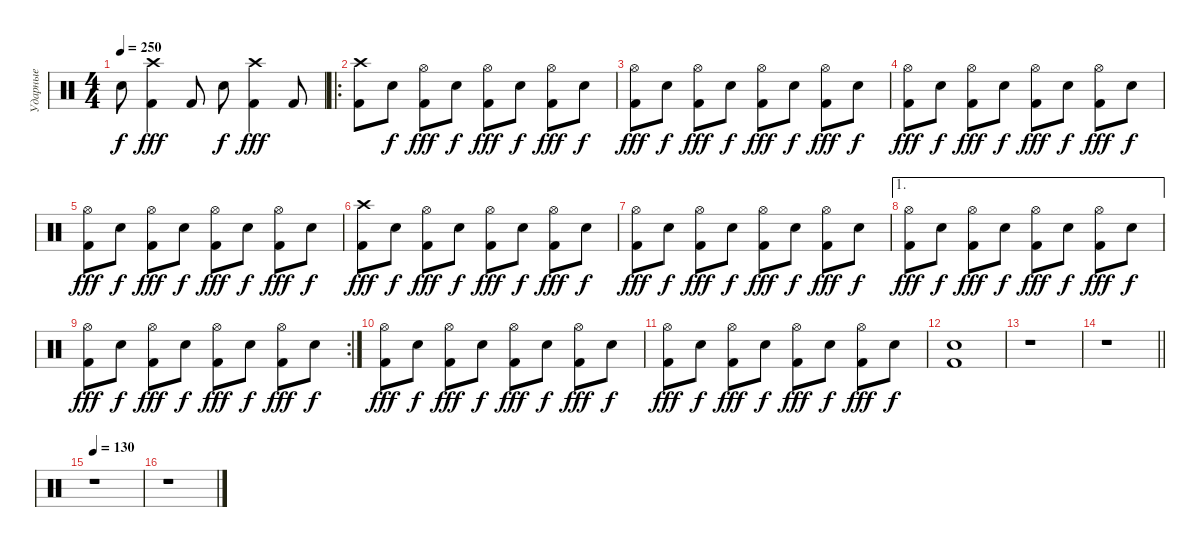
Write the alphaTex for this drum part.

\track ("Ударные" "Ударные") {instrument percussion}
\staff {score}
\articulation defaults
\ts (4 4)
\tempo 250
\clef neutral
\ks c "Snare (hit) 2".8{dy f}
("Kick (hit) 2" "Crash high (hit)").4{dy fff} "Kick (hit) 2".8 "Snare (hit) 2".8{dy f} ("Kick (hit) 2" "Crash high (hit)").4{dy fff} "Kick (hit) 2".8 |
\ro
("Kick (hit) 2" "Crash high (hit)").8 "Snare (hit) 2".8{dy f} ("Kick (hit) 2" "Hi-Hat (open)").8{dy fff} "Snare (hit) 2".8{dy f} ("Kick (hit) 2" "Hi-Hat (open)").8{dy fff} "Snare (hit) 2".8{dy f} ("Kick (hit) 2" "Hi-Hat (open)").8{dy fff} "Snare (hit) 2".8{dy f} |
("Kick (hit) 2" "Hi-Hat (open)").8{dy fff} "Snare (hit) 2".8{dy f} ("Kick (hit) 2" "Hi-Hat (open)").8{dy fff} "Snare (hit) 2".8{dy f} ("Kick (hit) 2" "Hi-Hat (open)").8{dy fff} "Snare (hit) 2".8{dy f} ("Kick (hit) 2" "Hi-Hat (open)").8{dy fff} "Snare (hit) 2".8{dy f} |
("Kick (hit) 2" "Hi-Hat (open)").8{dy fff} "Snare (hit) 2".8{dy f} ("Kick (hit) 2" "Hi-Hat (open)").8{dy fff} "Snare (hit) 2".8{dy f} ("Kick (hit) 2" "Hi-Hat (open)").8{dy fff} "Snare (hit) 2".8{dy f} ("Kick (hit) 2" "Hi-Hat (open)").8{dy fff} "Snare (hit) 2".8{dy f} |
("Kick (hit) 2" "Hi-Hat (open)").8{dy fff} "Snare (hit) 2".8{dy f} ("Kick (hit) 2" "Hi-Hat (open)").8{dy fff} "Snare (hit) 2".8{dy f} ("Kick (hit) 2" "Hi-Hat (open)").8{dy fff} "Snare (hit) 2".8{dy f} ("Kick (hit) 2" "Hi-Hat (open)").8{dy fff} "Snare (hit) 2".8{dy f} |
("Kick (hit) 2" "Crash high (hit)").8{dy fff} "Snare (hit) 2".8{dy f} ("Kick (hit) 2" "Hi-Hat (open)").8{dy fff} "Snare (hit) 2".8{dy f} ("Kick (hit) 2" "Hi-Hat (open)").8{dy fff} "Snare (hit) 2".8{dy f} ("Kick (hit) 2" "Hi-Hat (open)").8{dy fff} "Snare (hit) 2".8{dy f} |
("Kick (hit) 2" "Hi-Hat (open)").8{dy fff} "Snare (hit) 2".8{dy f} ("Kick (hit) 2" "Hi-Hat (open)").8{dy fff} "Snare (hit) 2".8{dy f} ("Kick (hit) 2" "Hi-Hat (open)").8{dy fff} "Snare (hit) 2".8{dy f} ("Kick (hit) 2" "Hi-Hat (open)").8{dy fff} "Snare (hit) 2".8{dy f} |
\ae 1
("Kick (hit) 2" "Hi-Hat (open)").8{dy fff} "Snare (hit) 2".8{dy f} ("Kick (hit) 2" "Hi-Hat (open)").8{dy fff} "Snare (hit) 2".8{dy f} ("Kick (hit) 2" "Hi-Hat (open)").8{dy fff} "Snare (hit) 2".8{dy f} ("Kick (hit) 2" "Hi-Hat (open)").8{dy fff} "Snare (hit) 2".8{dy f} |
\rc 2
("Kick (hit) 2" "Hi-Hat (open)").8{dy fff} "Snare (hit) 2".8{dy f} ("Kick (hit) 2" "Hi-Hat (open)").8{dy fff} "Snare (hit) 2".8{dy f} ("Kick (hit) 2" "Hi-Hat (open)").8{dy fff} "Snare (hit) 2".8{dy f} ("Kick (hit) 2" "Hi-Hat (open)").8{dy fff} "Snare (hit) 2".8{dy f} |
("Kick (hit) 2" "Hi-Hat (open)").8{dy fff} "Snare (hit) 2".8{dy f} ("Kick (hit) 2" "Hi-Hat (open)").8{dy fff} "Snare (hit) 2".8{dy f} ("Kick (hit) 2" "Hi-Hat (open)").8{dy fff} "Snare (hit) 2".8{dy f} ("Kick (hit) 2" "Hi-Hat (open)").8{dy fff} "Snare (hit) 2".8{dy f} |
("Kick (hit) 2" "Hi-Hat (open)").8{dy fff} "Snare (hit) 2".8{dy f} ("Kick (hit) 2" "Hi-Hat (open)").8{dy fff} "Snare (hit) 2".8{dy f} ("Kick (hit) 2" "Hi-Hat (open)").8{dy fff} "Snare (hit) 2".8{dy f} ("Kick (hit) 2" "Hi-Hat (open)").8{dy fff} "Snare (hit) 2".8{dy f} |
("Kick (hit) 2" "Snare (hit) 2").1 |
r.1 |
\barLineRight lightlight
r.1 |
\tempo 130
r.1 |
r.1
